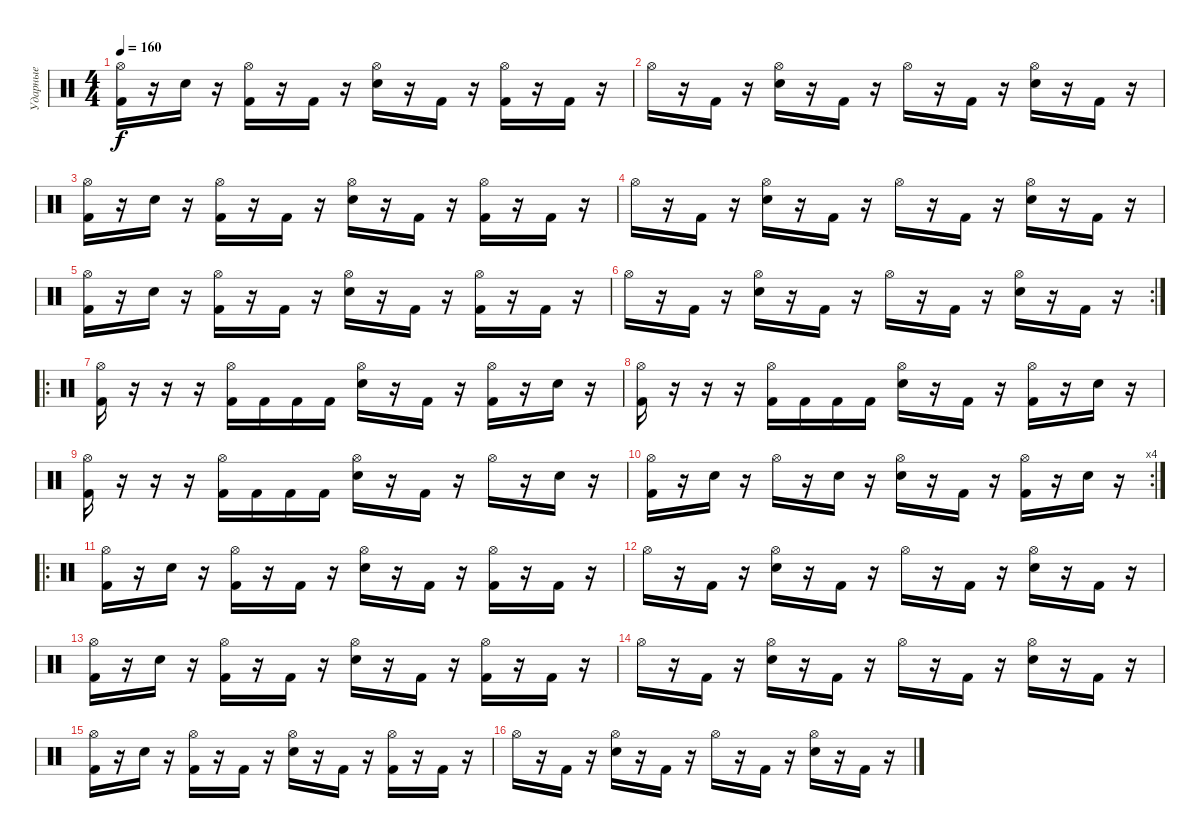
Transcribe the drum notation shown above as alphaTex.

\track ("Ударные" "Ударные") {instrument percussion}
\staff {score}
\articulation defaults
\ts (4 4)
\tempo 160
\clef neutral
\ks c
("Hi-Hat (open)" "Kick (hit) 2").16{dy f} r.16 "Electric Snare (hit)".16 r.16 ("Hi-Hat (open)" "Kick (hit) 2").16 r.16 "Kick (hit) 2".16 r.16 ("Hi-Hat (open)" "Electric Snare (hit)").16 r.16 "Kick (hit) 2".16 r.16 ("Hi-Hat (open)" "Kick (hit) 2").16 r.16 "Kick (hit) 2".16 r.16 |
"Hi-Hat (open)".16 r.16 "Kick (hit) 2".16 r.16 ("Hi-Hat (open)" "Electric Snare (hit)").16 r.16 "Kick (hit) 2".16 r.16 "Hi-Hat (open)".16 r.16 "Kick (hit) 2".16 r.16 ("Hi-Hat (open)" "Electric Snare (hit)").16 r.16 "Kick (hit) 2".16 r.16 |
("Hi-Hat (open)" "Kick (hit) 2").16 r.16 "Electric Snare (hit)".16 r.16 ("Hi-Hat (open)" "Kick (hit) 2").16 r.16 "Kick (hit) 2".16 r.16 ("Hi-Hat (open)" "Electric Snare (hit)").16 r.16 "Kick (hit) 2".16 r.16 ("Hi-Hat (open)" "Kick (hit) 2").16 r.16 "Kick (hit) 2".16 r.16 |
"Hi-Hat (open)".16 r.16 "Kick (hit) 2".16 r.16 ("Hi-Hat (open)" "Electric Snare (hit)").16 r.16 "Kick (hit) 2".16 r.16 "Hi-Hat (open)".16 r.16 "Kick (hit) 2".16 r.16 ("Hi-Hat (open)" "Electric Snare (hit)").16 r.16 "Kick (hit) 2".16 r.16 |
("Hi-Hat (open)" "Kick (hit) 2").16 r.16 "Electric Snare (hit)".16 r.16 ("Hi-Hat (open)" "Kick (hit) 2").16 r.16 "Kick (hit) 2".16 r.16 ("Hi-Hat (open)" "Electric Snare (hit)").16 r.16 "Kick (hit) 2".16 r.16 ("Hi-Hat (open)" "Kick (hit) 2").16 r.16 "Kick (hit) 2".16 r.16 |
\rc 2 "Hi-Hat (open)".16
r.16 "Kick (hit) 2".16 r.16 ("Hi-Hat (open)" "Electric Snare (hit)").16 r.16 "Kick (hit) 2".16 r.16 "Hi-Hat (open)".16 r.16 "Kick (hit) 2".16 r.16 ("Hi-Hat (open)" "Electric Snare (hit)").16 r.16 "Kick (hit) 2".16 r.16 |
\ro
("Hi-Hat (open)" "Kick (hit) 2").16 r.16 r.16 r.16 ("Hi-Hat (open)" "Kick (hit) 2").16 "Kick (hit) 2".16 "Kick (hit) 2".16 "Kick (hit) 2".16 ("Hi-Hat (open)" "Electric Snare (hit)").16 r.16 "Kick (hit) 2".16 r.16 ("Hi-Hat (open)" "Kick (hit) 2").16 r.16 "Electric Snare (hit)".16 r.16 |
("Hi-Hat (open)" "Kick (hit) 2").16 r.16 r.16 r.16 ("Hi-Hat (open)" "Kick (hit) 2").16 "Kick (hit) 2".16 "Kick (hit) 2".16 "Kick (hit) 2".16 ("Hi-Hat (open)" "Electric Snare (hit)").16 r.16 "Kick (hit) 2".16 r.16 ("Hi-Hat (open)" "Kick (hit) 2").16 r.16 "Electric Snare (hit)".16 r.16 |
("Hi-Hat (open)" "Kick (hit) 2").16 r.16 r.16 r.16 ("Hi-Hat (open)" "Kick (hit) 2").16 "Kick (hit) 2".16 "Kick (hit) 2".16 "Kick (hit) 2".16 ("Hi-Hat (open)" "Electric Snare (hit)").16 r.16 "Kick (hit) 2".16 r.16 "Hi-Hat (open)".16 r.16 "Electric Snare (hit)".16 r.16 |
\rc 4
("Hi-Hat (open)" "Kick (hit) 2").16 r.16 "Electric Snare (hit)".16 r.16 "Hi-Hat (open)".16 r.16 "Electric Snare (hit)".16 r.16 ("Hi-Hat (open)" "Electric Snare (hit)").16 r.16 "Kick (hit) 2".16 r.16 ("Hi-Hat (open)" "Kick (hit) 2").16 r.16 "Electric Snare (hit)".16 r.16 |
\ro
("Hi-Hat (open)" "Kick (hit) 2").16 r.16 "Electric Snare (hit)".16 r.16 ("Hi-Hat (open)" "Kick (hit) 2").16 r.16 "Kick (hit) 2".16 r.16 ("Hi-Hat (open)" "Electric Snare (hit)").16 r.16 "Kick (hit) 2".16 r.16 ("Hi-Hat (open)" "Kick (hit) 2").16 r.16 "Kick (hit) 2".16 r.16 |
"Hi-Hat (open)".16 r.16 "Kick (hit) 2".16 r.16 ("Hi-Hat (open)" "Electric Snare (hit)").16 r.16 "Kick (hit) 2".16 r.16 "Hi-Hat (open)".16 r.16 "Kick (hit) 2".16 r.16 ("Hi-Hat (open)" "Electric Snare (hit)").16 r.16 "Kick (hit) 2".16 r.16 |
("Hi-Hat (open)" "Kick (hit) 2").16 r.16 "Electric Snare (hit)".16 r.16 ("Hi-Hat (open)" "Kick (hit) 2").16 r.16 "Kick (hit) 2".16 r.16 ("Hi-Hat (open)" "Electric Snare (hit)").16 r.16 "Kick (hit) 2".16 r.16 ("Hi-Hat (open)" "Kick (hit) 2").16 r.16 "Kick (hit) 2".16 r.16 |
"Hi-Hat (open)".16 r.16 "Kick (hit) 2".16 r.16 ("Hi-Hat (open)" "Electric Snare (hit)").16 r.16 "Kick (hit) 2".16 r.16 "Hi-Hat (open)".16 r.16 "Kick (hit) 2".16 r.16 ("Hi-Hat (open)" "Electric Snare (hit)").16 r.16 "Kick (hit) 2".16 r.16 |
("Hi-Hat (open)" "Kick (hit) 2").16 r.16 "Electric Snare (hit)".16 r.16 ("Hi-Hat (open)" "Kick (hit) 2").16 r.16 "Kick (hit) 2".16 r.16 ("Hi-Hat (open)" "Electric Snare (hit)").16 r.16 "Kick (hit) 2".16 r.16 ("Hi-Hat (open)" "Kick (hit) 2").16 r.16 "Kick (hit) 2".16 r.16 |
"Hi-Hat (open)".16 r.16 "Kick (hit) 2".16 r.16 ("Hi-Hat (open)" "Electric Snare (hit)").16 r.16 "Kick (hit) 2".16 r.16 "Hi-Hat (open)".16 r.16 "Kick (hit) 2".16 r.16 ("Hi-Hat (open)" "Electric Snare (hit)").16 r.16 "Kick (hit) 2".16 r.16
